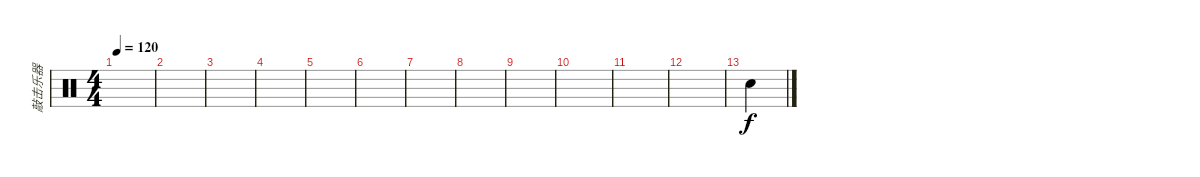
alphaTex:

\track ("敲击乐器" "敲击乐器") {instrument percussion}
\staff {score}
\articulation defaults
\ts (4 4)
\tempo 120
\clef neutral
\ks c
|
|
|
|
|
|
|
|
|
|
|
|
"Snare (hit) 2".4
